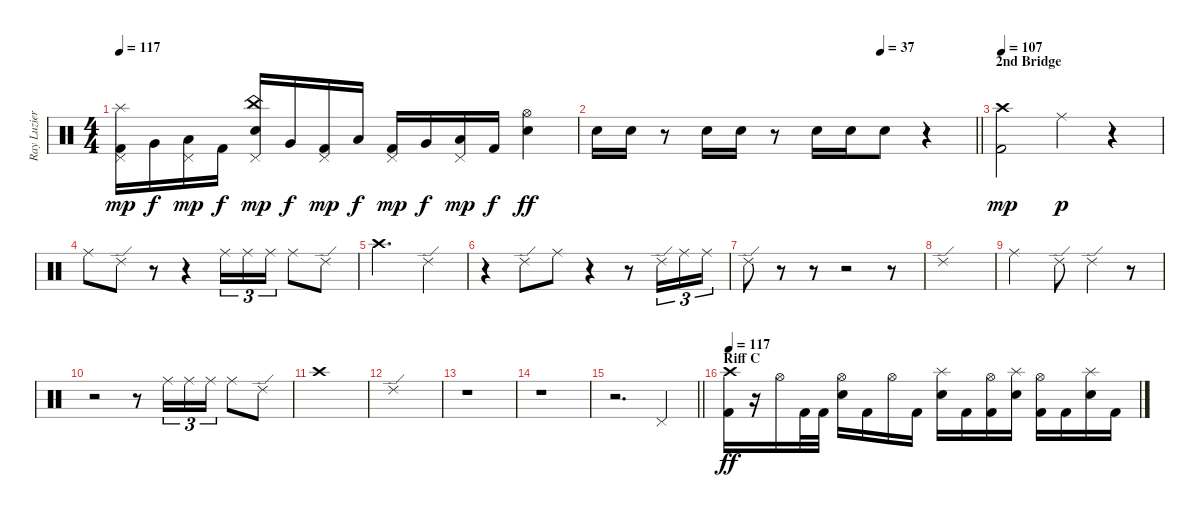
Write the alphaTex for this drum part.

\track ("Ray Luzier" "Ray Luzier") {instrument percussion}
\staff {score}
\articulation defaults
\ts (4 4)
\tempo 117
\clef neutral
\ks c
("Splash (hit)" "Pedal Hi-Hat (hit)" "Kick (hit) 2").16{dy mp} "Very Low Tom (hit)".16{dy f} ("Pedal Hi-Hat (hit)" "Low Floor Tom (hit)").16{dy mp} "Kick (hit) 2".16{dy f} ("China (hit)" "Pedal Hi-Hat (hit)" "Snare (hit) 2").16{dy mp} "Very Low Tom (hit)".16{dy f} ("Pedal Hi-Hat (hit)" "Kick (hit) 2").16{dy mp} "Low Floor Tom (hit)".16{dy f} ("Pedal Hi-Hat (hit)" "Kick (hit) 2").16{dy mp} "Very Low Tom (hit)".16{dy f} ("Pedal Hi-Hat (hit)" "Low Floor Tom (hit)").16{dy mp} "Kick (hit) 2".16{dy f} ("Hi-Hat (open)" "Snare (hit) 2").4{dy ff} |
\tempo (37 0.75)
\barLineRight lightlight "Snare (hit) 2".16 "Snare (hit) 2".16
r.8 "Snare (hit) 2".16 "Snare (hit) 2".16 r.8 "Snare (hit) 2".16 "Snare (hit) 2".16 "Snare (hit) 2".8 r.4 |
\section ("" "2nd Bridge")
\tempo 107
("Crash high (hit)" "Kick (hit) 2").2{dy mp volume 6} "Ride (middle)".4{dy p} r.4 |
"Ride (middle)".8 "Ride (edge) 2".8 r.8 r.4 "Ride (middle)".16{tu (3 2)} "Ride (middle)".16{tu (3 2)} "Ride (middle)".16{tu (3 2)} "Ride (middle)".8 "Ride (edge) 2".8 |
"Crash high (hit)".2{d} "Ride (edge) 2".4 |
r.4 "Ride (edge) 2".8 "Ride (middle)".8 r.4 r.8 "Ride (edge) 2".16{tu (3 2)} "Ride (middle)".16{tu (3 2)} "Ride (middle)".16{tu (3 2)} |
"Ride (edge) 2".8 r.8 r.8 r.2 r.8 |
"Ride (edge) 2".1 |
"Ride (middle)".2 "Ride (edge) 2".8 "Ride (edge) 2".4 r.8 |
r.2 r.8 "Ride (middle)".16{tu (3 2)} "Ride (middle)".16{tu (3 2)} "Ride (middle)".16{tu (3 2)} "Ride (middle)".8 "Ride (edge) 2".8 |
"Crash high (hit)".1 |
"Ride (edge) 2".1 |
r.1 |
r.1 |
\barLineRight lightlight
r.2{d} "Pedal Hi-Hat (hit)".4 |
\section ("" "Riff C")
\tempo 117
("Crash high (hit)" "Kick (hit) 2").16{dy ff volume 11} r.16 "Hi-Hat (open)".16 "Kick (hit) 2".32 "Kick (hit) 2".32 ("Hi-Hat (open)" "Snare (hit) 2").16 "Kick (hit) 2".16 "Hi-Hat (open)".16 "Kick (hit) 2".16 ("Splash (hit)" "Snare (hit) 2").16 "Kick (hit) 2".16 ("Hi-Hat (open)" "Kick (hit) 2").16 ("Splash (hit)" "Snare (hit) 2").16 ("Hi-Hat (open)" "Kick (hit) 2").16 "Kick (hit) 2".16 ("Splash (hit)" "Snare (hit) 2").16 "Kick (hit) 2".16
